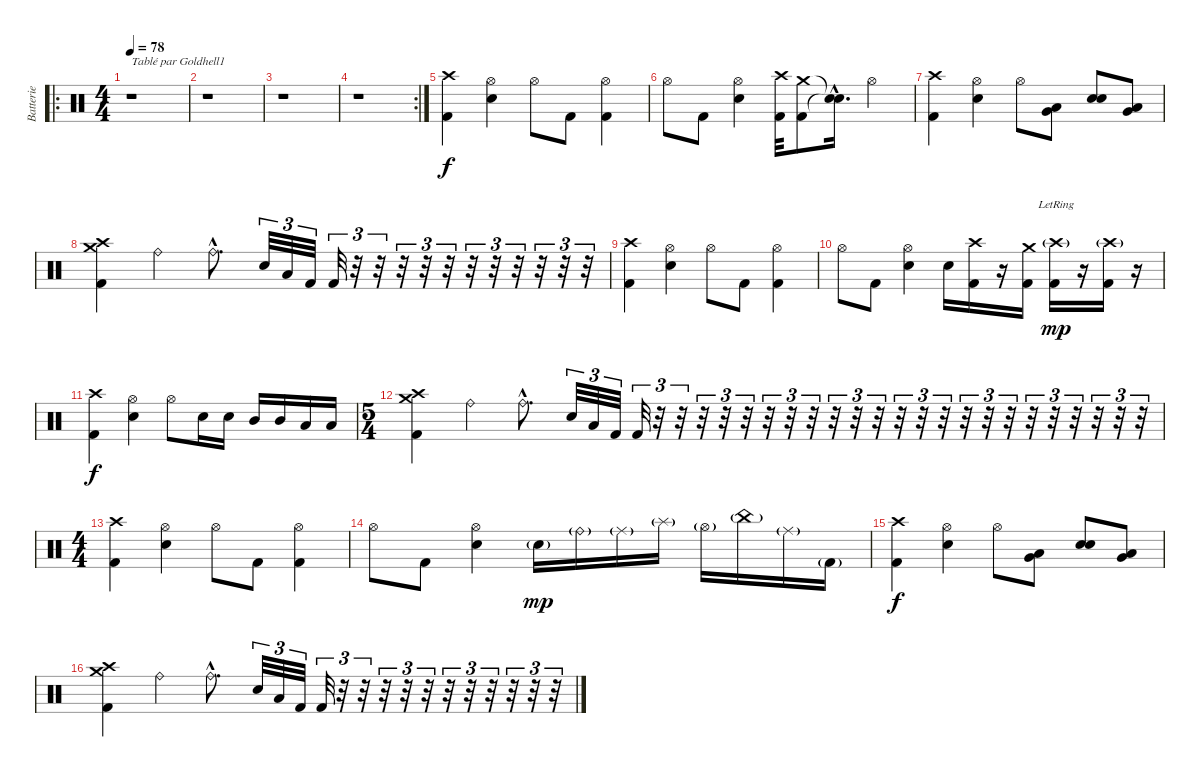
\track ("Batterie" "Batterie") {instrument percussion}
\staff {score}
\articulation defaults
\ro
\ts (4 4)
\tempo 78
\clef neutral
\ks c
r.1{txt "Tablé par Goldhell1" dy f} |
r.1 |
r.1 |
\rc 2
r.1 |
("Crash high (hit)" "Kick (hit) 2").4 ("Hi-Hat (open)" "Electric Snare (hit)").4 "Hi-Hat (open)".8 "Kick (hit) 2".8 ("Hi-Hat (open)" "Kick (hit) 2").4 |
"Hi-Hat (open)".8 "Kick (hit) 2".8 ("Hi-Hat (open)" "Electric Snare (hit)").4 ("Crash high (hit)" "Kick (hit) 2").32 ("Crash medium (hit)" "Kick (hit) 2").8 ("Snare (hit)"{hac t} "Snare (hit)"{hac t}).16{d} "Hi-Hat (open)".4 |
("Crash high (hit)" "Kick (hit) 2").4 ("Hi-Hat (open)" "Electric Snare (hit)").4 "Hi-Hat (open)".8 ("Low Tom (hit)" "Very Low Tom (hit)").8 ("Electric Snare (hit)" "Electric Snare (hit)").8 ("Low Tom (hit)" "Very Low Tom (hit)").8 |
("Crash medium (hit)" "Kick (hit) 2" "Crash high (hit)").4 "Ride (bell)".4 "Ride (bell)"{hac}.8{d} "Electric Snare (hit)".32{tu (3 2)} "Low Tom (hit)".32{tu (3 2)} "Kick (hit) 2".32{tu (3 2)} "Kick (hit) 2".32{tu (3 2)} r.32{tu (3 2)} r.32{tu (3 2)} r.32{tu (3 2)} r.32{tu (3 2)} r.32{tu (3 2)} r.32{tu (3 2)} r.32{tu (3 2)} r.32{tu (3 2)} r.32{tu (3 2)} r.32{tu (3 2)} r.32{tu (3 2)} |
("Crash high (hit)" "Kick (hit) 2").4 ("Hi-Hat (open)" "Electric Snare (hit)").4 "Hi-Hat (open)".8 "Kick (hit) 2".8 ("Hi-Hat (open)" "Kick (hit) 2").4 |
"Hi-Hat (open)".8 "Kick (hit) 2".8 ("Hi-Hat (open)" "Electric Snare (hit)").4 "Electric Snare (hit)".16 ("Crash high (hit)" "Kick (hit) 2").16 r.16 ("Crash medium (hit)" "Kick (hit) 2").16 ("Crash high (hit)"{g lr} "Kick (hit) 2").16{dy mp} r.16 ("Crash high (hit)"{g} "Kick (hit) 2").16 r.16 |
("Crash high (hit)" "Kick (hit) 2").4{dy f} ("Hi-Hat (open)" "Electric Snare (hit)").4 "Hi-Hat (open)".8 "Electric Snare (hit)".16 "Electric Snare (hit)".16 "Mid Tom (hit)".16 "Mid Tom (hit)".16 "Low Tom (hit)".16 "Low Tom (hit)".16 |
\ts (5 4)
("Crash medium (hit)" "Kick (hit) 2" "Crash high (hit)").4 "Ride (bell)".4 "Ride (bell)"{hac}.8{d} "Electric Snare (hit)".32{tu (3 2)} "Low Tom (hit)".32{tu (3 2)} "Kick (hit) 2".32{tu (3 2)} "Kick (hit) 2".32{tu (3 2)} r.32{tu (3 2)} r.32{tu (3 2)} r.32{tu (3 2)} r.32{tu (3 2)} r.32{tu (3 2)} r.32{tu (3 2)} r.32{tu (3 2)} r.32{tu (3 2)} r.32{tu (3 2)} r.32{tu (3 2)} r.32{tu (3 2)} r.32{tu (3 2)} r.32{tu (3 2)} r.32{tu (3 2)} r.32{tu (3 2)} r.32{tu (3 2)} r.32{tu (3 2)} r.32{tu (3 2)} r.32{tu (3 2)} r.32{tu (3 2)} r.32{tu (3 2)} r.32{tu (3 2)} r.32{tu (3 2)} |
\ts (4 4)
("Crash high (hit)" "Kick (hit) 2").4 ("Hi-Hat (open)" "Electric Snare (hit)").4 "Hi-Hat (open)".8 "Kick (hit) 2".8 ("Hi-Hat (open)" "Kick (hit) 2").4 |
"Hi-Hat (open)".8 "Kick (hit) 2".8 ("Electric Snare (hit)" "Hi-Hat (open)").4 "Electric Snare (hit)"{g}.16{dy mp} "Ride (bell)"{g}.16 "Ride (middle)"{g}.16 "Splash (hit)"{g}.16 "Hi-Hat (open)"{g}.16 "China (hit)"{g}.16 "Ride (middle)"{g}.16 "Kick (hit) 2"{g}.16 |
("Crash high (hit)" "Kick (hit) 2").4{dy f} ("Hi-Hat (open)" "Electric Snare (hit)").4 "Hi-Hat (open)".8 ("Low Tom (hit)" "Very Low Tom (hit)").8 ("Electric Snare (hit)" "Electric Snare (hit)").8 ("Low Tom (hit)" "Very Low Tom (hit)").8 |
("Crash medium (hit)" "Kick (hit) 2" "Crash high (hit)").4 "Ride (bell)".4 "Ride (bell)"{hac}.8{d} "Electric Snare (hit)".32{tu (3 2)} "Low Tom (hit)".32{tu (3 2)} "Kick (hit) 2".32{tu (3 2)} "Kick (hit) 2".32{tu (3 2)} r.32{tu (3 2)} r.32{tu (3 2)} r.32{tu (3 2)} r.32{tu (3 2)} r.32{tu (3 2)} r.32{tu (3 2)} r.32{tu (3 2)} r.32{tu (3 2)} r.32{tu (3 2)} r.32{tu (3 2)} r.32{tu (3 2)}
